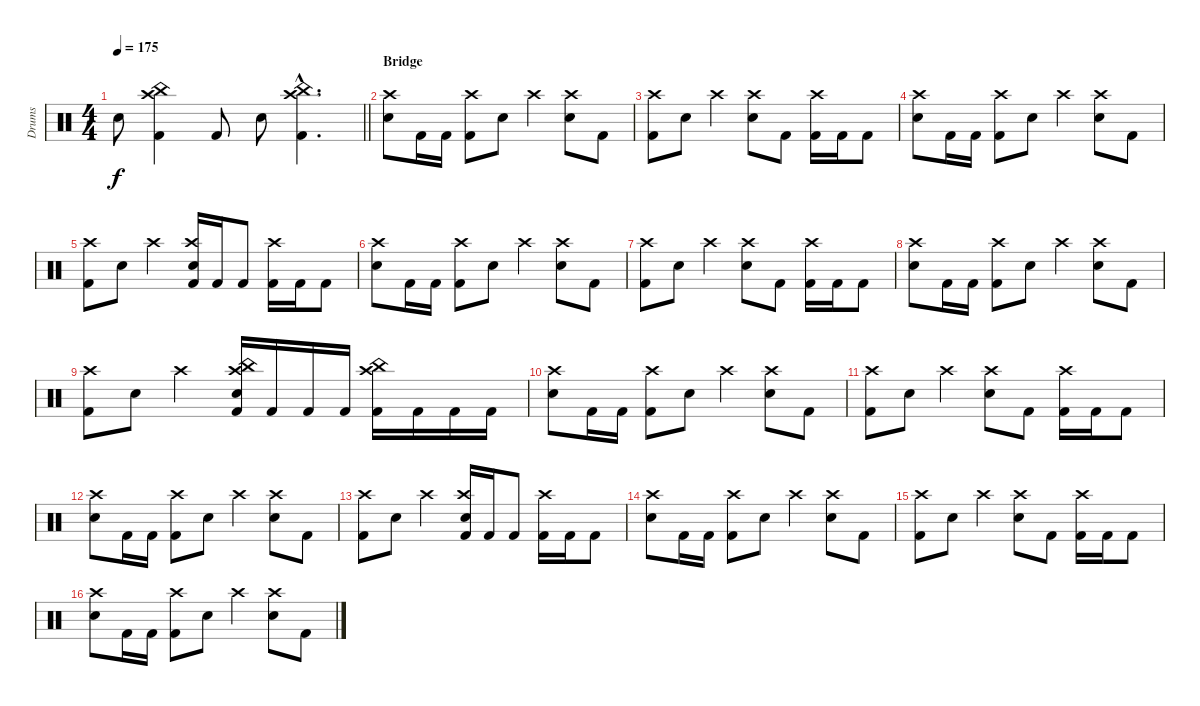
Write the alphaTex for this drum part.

\track ("Drums" "Drums") {instrument percussion}
\staff {score}
\articulation defaults
\ts (4 4)
\tempo 175
\clef neutral
\barLineRight lightlight
\ks c "Snare (hit) 2".8{dy f}
("China (hit)" "Crash high (hit)" "Kick (hit) 2").4 "Kick (hit) 2".8 "Snare (hit) 2".8 ("China (hit)"{hac} "Crash high (hit)"{hac} "Kick (hit) 2"{hac}).4{d} |
\section ("" "Bridge")
("Crash high (hit)" "Snare (hit) 2").8 "Kick (hit) 2".16 "Kick (hit) 2".16 ("Crash high (hit)" "Kick (hit) 2").8 "Snare (hit) 2".8 "Crash high (hit)".4 ("Crash high (hit)" "Snare (hit) 2").8 "Kick (hit) 2".8 |
("Crash high (hit)" "Kick (hit) 2").8 "Snare (hit) 2".8 "Crash high (hit)".4 ("Crash high (hit)" "Snare (hit) 2").8 "Kick (hit) 2".8 ("Crash high (hit)" "Kick (hit) 2").16 "Kick (hit) 2".16 "Kick (hit) 2".8 |
("Crash high (hit)" "Snare (hit) 2").8 "Kick (hit) 2".16 "Kick (hit) 2".16 ("Crash high (hit)" "Kick (hit) 2").8 "Snare (hit) 2".8 "Crash high (hit)".4 ("Crash high (hit)" "Snare (hit) 2").8 "Kick (hit) 2".8 |
("Crash high (hit)" "Kick (hit) 2").8 "Snare (hit) 2".8 "Crash high (hit)".4 ("Crash high (hit)" "Snare (hit) 2" "Kick (hit) 2").16 "Kick (hit) 2".16 "Kick (hit) 2".8 ("Crash high (hit)" "Kick (hit) 2").16 "Kick (hit) 2".16 "Kick (hit) 2".8 |
("Crash high (hit)" "Snare (hit) 2").8 "Kick (hit) 2".16 "Kick (hit) 2".16 ("Crash high (hit)" "Kick (hit) 2").8 "Snare (hit) 2".8 "Crash high (hit)".4 ("Crash high (hit)" "Snare (hit) 2").8 "Kick (hit) 2".8 |
("Crash high (hit)" "Kick (hit) 2").8 "Snare (hit) 2".8 "Crash high (hit)".4 ("Crash high (hit)" "Snare (hit) 2").8 "Kick (hit) 2".8 ("Crash high (hit)" "Kick (hit) 2").16 "Kick (hit) 2".16 "Kick (hit) 2".8 |
("Crash high (hit)" "Snare (hit) 2").8 "Kick (hit) 2".16 "Kick (hit) 2".16 ("Crash high (hit)" "Kick (hit) 2").8 "Snare (hit) 2".8 "Crash high (hit)".4 ("Crash high (hit)" "Snare (hit) 2").8 "Kick (hit) 2".8 |
("Crash high (hit)" "Kick (hit) 2").8 "Snare (hit) 2".8 "Crash high (hit)".4 ("Crash high (hit)" "China (hit)" "Snare (hit) 2" "Kick (hit) 2").16 "Kick (hit) 2".16 "Kick (hit) 2".16 "Kick (hit) 2".16 ("Crash high (hit)" "China (hit)" "Kick (hit) 2").16 "Kick (hit) 2".16 "Kick (hit) 2".16 "Kick (hit) 2".16 |
("Crash high (hit)" "Snare (hit) 2").8 "Kick (hit) 2".16 "Kick (hit) 2".16 ("Crash high (hit)" "Kick (hit) 2").8 "Snare (hit) 2".8 "Crash high (hit)".4 ("Crash high (hit)" "Snare (hit) 2").8 "Kick (hit) 2".8 |
("Crash high (hit)" "Kick (hit) 2").8 "Snare (hit) 2".8 "Crash high (hit)".4 ("Crash high (hit)" "Snare (hit) 2").8 "Kick (hit) 2".8 ("Crash high (hit)" "Kick (hit) 2").16 "Kick (hit) 2".16 "Kick (hit) 2".8 |
("Crash high (hit)" "Snare (hit) 2").8 "Kick (hit) 2".16 "Kick (hit) 2".16 ("Crash high (hit)" "Kick (hit) 2").8 "Snare (hit) 2".8 "Crash high (hit)".4 ("Crash high (hit)" "Snare (hit) 2").8 "Kick (hit) 2".8 |
("Crash high (hit)" "Kick (hit) 2").8 "Snare (hit) 2".8 "Crash high (hit)".4 ("Crash high (hit)" "Snare (hit) 2" "Kick (hit) 2").16 "Kick (hit) 2".16 "Kick (hit) 2".8 ("Crash high (hit)" "Kick (hit) 2").16 "Kick (hit) 2".16 "Kick (hit) 2".8 |
("Crash high (hit)" "Snare (hit) 2").8 "Kick (hit) 2".16 "Kick (hit) 2".16 ("Crash high (hit)" "Kick (hit) 2").8 "Snare (hit) 2".8 "Crash high (hit)".4 ("Crash high (hit)" "Snare (hit) 2").8 "Kick (hit) 2".8 |
("Crash high (hit)" "Kick (hit) 2").8 "Snare (hit) 2".8 "Crash high (hit)".4 ("Crash high (hit)" "Snare (hit) 2").8 "Kick (hit) 2".8 ("Crash high (hit)" "Kick (hit) 2").16 "Kick (hit) 2".16 "Kick (hit) 2".8 |
("Crash high (hit)" "Snare (hit) 2").8 "Kick (hit) 2".16 "Kick (hit) 2".16 ("Crash high (hit)" "Kick (hit) 2").8 "Snare (hit) 2".8 "Crash high (hit)".4 ("Crash high (hit)" "Snare (hit) 2").8 "Kick (hit) 2".8
